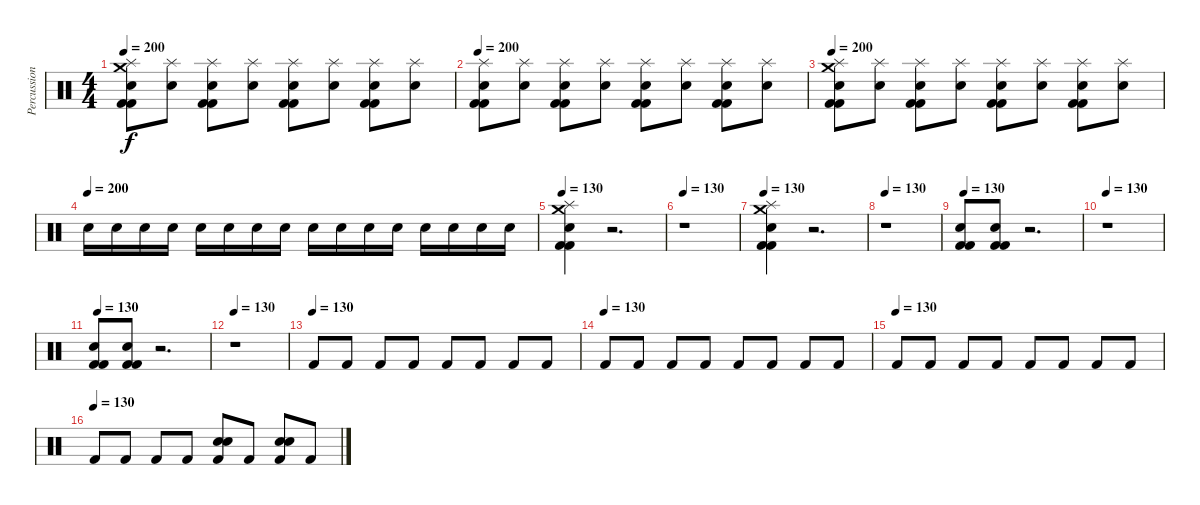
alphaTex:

\track ("Percussions" "Percussion") {instrument percussion}
\staff {score}
\articulation defaults
\ts (4 4)
\tempo 200
\clef neutral
\ks c
("Kick (hit) 2" "Kick (hit) 2" "Snare (hit) 2" "Crash medium (hit)" "Splash (hit)").8{dy f} ("Snare (hit) 2" "Splash (hit)").8 ("Kick (hit) 2" "Kick (hit) 2" "Snare (hit) 2" "Splash (hit)").8 ("Snare (hit) 2" "Splash (hit)").8 ("Kick (hit) 2" "Kick (hit) 2" "Snare (hit) 2" "Splash (hit)").8 ("Snare (hit) 2" "Splash (hit)").8 ("Kick (hit) 2" "Kick (hit) 2" "Snare (hit) 2" "Splash (hit)").8 ("Snare (hit) 2" "Splash (hit)").8 |
\tempo 200
("Kick (hit) 2" "Kick (hit) 2" "Snare (hit) 2" "Splash (hit)").8 ("Snare (hit) 2" "Splash (hit)").8 ("Kick (hit) 2" "Kick (hit) 2" "Snare (hit) 2" "Splash (hit)").8 ("Snare (hit) 2" "Splash (hit)").8 ("Kick (hit) 2" "Kick (hit) 2" "Snare (hit) 2" "Splash (hit)").8 ("Snare (hit) 2" "Splash (hit)").8 ("Kick (hit) 2" "Kick (hit) 2" "Snare (hit) 2" "Splash (hit)").8 ("Snare (hit) 2" "Splash (hit)").8 |
\tempo 200
("Kick (hit) 2" "Kick (hit) 2" "Snare (hit) 2" "Crash medium (hit)" "Splash (hit)").8 ("Snare (hit) 2" "Splash (hit)").8 ("Kick (hit) 2" "Kick (hit) 2" "Snare (hit) 2" "Splash (hit)").8 ("Snare (hit) 2" "Splash (hit)").8 ("Kick (hit) 2" "Kick (hit) 2" "Snare (hit) 2" "Splash (hit)").8 ("Snare (hit) 2" "Splash (hit)").8 ("Kick (hit) 2" "Kick (hit) 2" "Snare (hit) 2" "Splash (hit)").8 ("Snare (hit) 2" "Splash (hit)").8 |
\tempo (200)
"Snare (hit) 2".16 "Snare (hit) 2".16 "Snare (hit) 2".16 "Snare (hit) 2".16 "Snare (hit) 2".16 "Snare (hit) 2".16 "Snare (hit) 2".16 "Snare (hit) 2".16 "Snare (hit) 2".16 "Snare (hit) 2".16 "Snare (hit) 2".16 "Snare (hit) 2".16 "Snare (hit) 2".16 "Snare (hit) 2".16 "Snare (hit) 2".16 "Snare (hit) 2".16 |
\tempo 130
("Kick (hit) 2" "Kick (hit) 2" "Snare (hit) 2" "Crash medium (hit)" "Splash (hit)").4 r.2{d} |
\tempo 130
r.1 |
\tempo 130
("Kick (hit) 2" "Kick (hit) 2" "Snare (hit) 2" "Crash medium (hit)" "Splash (hit)").4 r.2{d} |
\tempo 130
r.1 |
\tempo 130
("Kick (hit) 2" "Kick (hit) 2" "Snare (hit) 2").8 ("Kick (hit) 2" "Kick (hit) 2" "Snare (hit) 2").8 r.2{d} |
\tempo 130
r.1 |
\tempo 130
("Kick (hit) 2" "Kick (hit) 2" "Snare (hit) 2").8 ("Kick (hit) 2" "Kick (hit) 2" "Snare (hit) 2").8 r.2{d} |
\tempo 130
r.1 |
\tempo (130)
"Kick (hit) 2".8 "Kick (hit) 2".8 "Kick (hit) 2".8 "Kick (hit) 2".8 "Kick (hit) 2".8 "Kick (hit) 2".8 "Kick (hit) 2".8 "Kick (hit) 2".8 |
\tempo (130)
"Kick (hit) 2".8 "Kick (hit) 2".8 "Kick (hit) 2".8 "Kick (hit) 2".8 "Kick (hit) 2".8 "Kick (hit) 2".8 "Kick (hit) 2".8 "Kick (hit) 2".8 |
\tempo (130)
"Kick (hit) 2".8 "Kick (hit) 2".8 "Kick (hit) 2".8 "Kick (hit) 2".8 "Kick (hit) 2".8 "Kick (hit) 2".8 "Kick (hit) 2".8 "Kick (hit) 2".8 |
\tempo (130)
"Kick (hit) 2".8 "Kick (hit) 2".8 "Kick (hit) 2".8 "Kick (hit) 2".8 ("Kick (hit) 2" "Snare (hit) 2" "Snare (hit) 2").8 "Kick (hit) 2".8 ("Kick (hit) 2" "Snare (hit) 2" "Snare (hit) 2").8 "Kick (hit) 2".8
